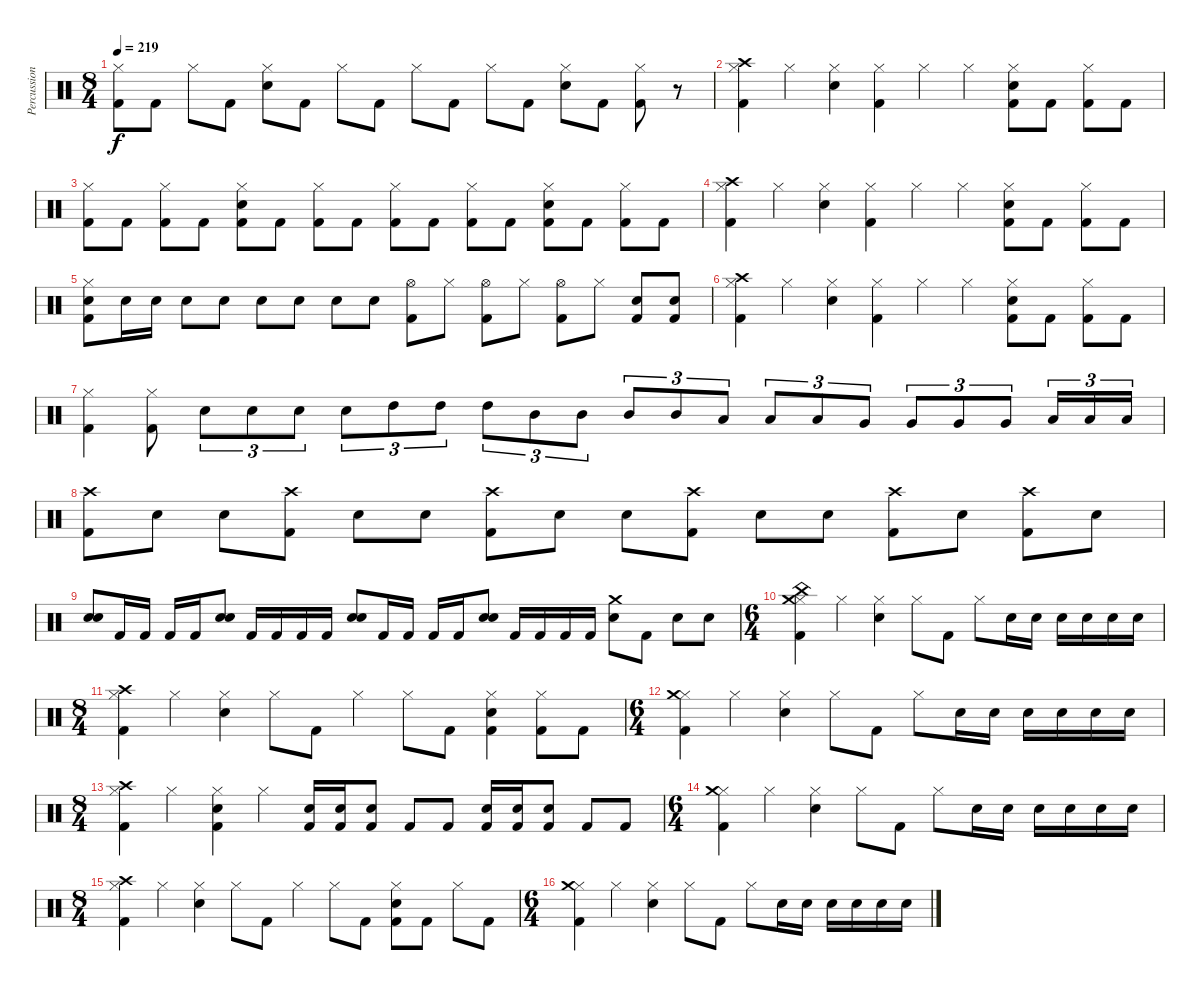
\track ("Percussion" "Percussion") {instrument percussion}
\staff {score}
\articulation defaults
\ts (8 4)
\tempo 219
\clef neutral
\ks c
("Hi-Hat (closed)" "Kick (hit) 2").8{dy f} "Kick (hit) 2".8 "Hi-Hat (closed)".8 "Kick (hit) 2".8 ("Hi-Hat (closed)" "Electric Snare (hit)").8 "Kick (hit) 2".8 "Hi-Hat (closed)".8 "Kick (hit) 2".8 "Hi-Hat (closed)".8 "Kick (hit) 2".8 "Hi-Hat (closed)".8 "Kick (hit) 2".8 ("Hi-Hat (closed)" "Electric Snare (hit)").8 "Kick (hit) 2".8 ("Hi-Hat (closed)" "Kick (hit) 2").8 r.8 |
("Crash high (hit)" "Hi-Hat (closed)" "Kick (hit) 2").4 "Hi-Hat (closed)".4 ("Hi-Hat (closed)" "Electric Snare (hit)").4 ("Hi-Hat (closed)" "Kick (hit) 2").4 "Hi-Hat (closed)".4 "Hi-Hat (closed)".4 ("Hi-Hat (closed)" "Electric Snare (hit)" "Kick (hit) 2").8 "Kick (hit) 2".8 ("Hi-Hat (closed)" "Kick (hit) 2").8 "Kick (hit) 2".8 |
("Hi-Hat (closed)" "Kick (hit) 2").8 "Kick (hit) 2".8 ("Hi-Hat (closed)" "Kick (hit) 2").8 "Kick (hit) 2".8 ("Hi-Hat (closed)" "Electric Snare (hit)" "Kick (hit) 2").8 "Kick (hit) 2".8 ("Hi-Hat (closed)" "Kick (hit) 2").8 "Kick (hit) 2".8 ("Hi-Hat (closed)" "Kick (hit) 2").8 "Kick (hit) 2".8 ("Hi-Hat (closed)" "Kick (hit) 2").8 "Kick (hit) 2".8 ("Hi-Hat (closed)" "Electric Snare (hit)" "Kick (hit) 2").8 "Kick (hit) 2".8 ("Hi-Hat (closed)" "Kick (hit) 2").8 "Kick (hit) 2".8 |
("Crash high (hit)" "Hi-Hat (closed)" "Kick (hit) 2").4 "Hi-Hat (closed)".4 ("Hi-Hat (closed)" "Electric Snare (hit)").4 ("Hi-Hat (closed)" "Kick (hit) 2").4 "Hi-Hat (closed)".4 "Hi-Hat (closed)".4 ("Hi-Hat (closed)" "Electric Snare (hit)" "Kick (hit) 2").8 "Kick (hit) 2".8 ("Hi-Hat (closed)" "Kick (hit) 2").8 "Kick (hit) 2".8 |
("Hi-Hat (closed)" "Electric Snare (hit)" "Kick (hit) 2").8 "Electric Snare (hit)".16 "Electric Snare (hit)".16 "Electric Snare (hit)".8 "Electric Snare (hit)".8 "Electric Snare (hit)".8 "Electric Snare (hit)".8 "Electric Snare (hit)".8 "Electric Snare (hit)".8 ("Hi-Hat (open)" "Kick (hit) 2").8 "Hi-Hat (closed)".8 ("Hi-Hat (open)" "Kick (hit) 2").8 "Hi-Hat (closed)".8 ("Hi-Hat (open)" "Kick (hit) 2").8 "Hi-Hat (closed)".8 ("Electric Snare (hit)" "Kick (hit) 2").8 ("Electric Snare (hit)" "Kick (hit) 2").8 |
("Crash high (hit)" "Hi-Hat (closed)" "Kick (hit) 2").4 "Hi-Hat (closed)".4 ("Hi-Hat (closed)" "Electric Snare (hit)").4 ("Hi-Hat (closed)" "Kick (hit) 2").4 "Hi-Hat (closed)".4 "Hi-Hat (closed)".4 ("Hi-Hat (closed)" "Electric Snare (hit)" "Kick (hit) 2").8 "Kick (hit) 2".8 ("Hi-Hat (closed)" "Kick (hit) 2").8 "Kick (hit) 2".8 |
("Hi-Hat (closed)" "Kick (hit) 2").4 ("Hi-Hat (closed)" "Kick (hit) 2").8 "Electric Snare (hit)".8{tu (3 2)} "Electric Snare (hit)".8{tu (3 2)} "Electric Snare (hit)".8{tu (3 2)} "Electric Snare (hit)".8{tu (3 2)} "High Tom (hit)".8{tu (3 2)} "High Tom (hit)".8{tu (3 2)} "High Tom (hit)".8{tu (3 2)} "Mid Tom (hit)".8{tu (3 2)} "Mid Tom (hit)".8{tu (3 2)} "Mid Tom (hit)".8{tu (3 2)} "Mid Tom (hit)".8{tu (3 2)} "Low Tom (hit)".8{tu (3 2)} "Low Tom (hit)".8{tu (3 2)} "Low Tom (hit)".8{tu (3 2)} "Very Low Tom (hit)".8{tu (3 2)} "Very Low Tom (hit)".8{tu (3 2)} "Very Low Tom (hit)".8{tu (3 2)} "Very Low Tom (hit)".8{tu (3 2)} "Low Floor Tom (hit)".16{tu (3 2)} "Low Floor Tom (hit)".16{tu (3 2)} "Low Floor Tom (hit)".16{tu (3 2)} |
("Crash high (hit)" "Kick (hit) 2").8 "Electric Snare (hit)".8 "Electric Snare (hit)".8 ("Crash high (hit)" "Kick (hit) 2").8 "Electric Snare (hit)".8 "Electric Snare (hit)".8 ("Crash high (hit)" "Kick (hit) 2").8 "Electric Snare (hit)".8 "Electric Snare (hit)".8 ("Crash high (hit)" "Kick (hit) 2").8 "Electric Snare (hit)".8 "Electric Snare (hit)".8 ("Crash high (hit)" "Kick (hit) 2").8 "Electric Snare (hit)".8 ("Crash high (hit)" "Kick (hit) 2").8 "Electric Snare (hit)".8 |
("Electric Snare (hit)" "Snare (hit) 2").8 "Kick (hit) 2".16 "Kick (hit) 2".16 "Kick (hit) 2".16 "Kick (hit) 2".16 ("Electric Snare (hit)" "Snare (hit) 2").8 "Kick (hit) 2".16 "Kick (hit) 2".16 "Kick (hit) 2".16 "Kick (hit) 2".16 ("Electric Snare (hit)" "Snare (hit) 2").8 "Kick (hit) 2".16 "Kick (hit) 2".16 "Kick (hit) 2".16 "Kick (hit) 2".16 ("Electric Snare (hit)" "Snare (hit) 2").8 "Kick (hit) 2".16 "Kick (hit) 2".16 "Kick (hit) 2".16 "Kick (hit) 2".16 ("Crash medium (hit)" "Electric Snare (hit)").8 "Kick (hit) 2".8 "Electric Snare (hit)".8 "Electric Snare (hit)".8 |
\ts (6 4)
("China (hit)" "Hi-Hat (closed)" "Crash medium (hit)" "Kick (hit) 2").4 "Hi-Hat (closed)".4 ("Hi-Hat (closed)" "Electric Snare (hit)").4 "Hi-Hat (closed)".8 "Kick (hit) 2".8 "Hi-Hat (closed)".8 "Electric Snare (hit)".16 "Electric Snare (hit)".16 "Electric Snare (hit)".16 "Electric Snare (hit)".16 "Electric Snare (hit)".16 "Electric Snare (hit)".16 |
\ts (8 4)
("Hi-Hat (closed)" "Crash high (hit)" "Kick (hit) 2").4 "Hi-Hat (closed)".4 ("Hi-Hat (closed)" "Electric Snare (hit)").4 "Hi-Hat (closed)".8 "Kick (hit) 2".8 "Hi-Hat (closed)".4 "Hi-Hat (closed)".8 "Kick (hit) 2".8 ("Hi-Hat (closed)" "Kick (hit) 2" "Electric Snare (hit)").4 ("Hi-Hat (closed)" "Kick (hit) 2").8 "Kick (hit) 2".8 |
\ts (6 4)
("Hi-Hat (closed)" "Crash medium (hit)" "Kick (hit) 2").4 "Hi-Hat (closed)".4 ("Hi-Hat (closed)" "Electric Snare (hit)").4 "Hi-Hat (closed)".8 "Kick (hit) 2".8 "Hi-Hat (closed)".8 "Electric Snare (hit)".16 "Electric Snare (hit)".16 "Electric Snare (hit)".16 "Electric Snare (hit)".16 "Electric Snare (hit)".16 "Electric Snare (hit)".16 |
\ts (8 4)
("Hi-Hat (closed)" "Crash high (hit)" "Kick (hit) 2").4 "Hi-Hat (closed)".4 ("Hi-Hat (closed)" "Kick (hit) 2" "Electric Snare (hit)").4 "Hi-Hat (closed)".4 ("Electric Snare (hit)" "Kick (hit) 2").16 ("Electric Snare (hit)" "Kick (hit) 2").16 ("Electric Snare (hit)" "Kick (hit) 2").8 "Kick (hit) 2".8 "Kick (hit) 2".8 ("Electric Snare (hit)" "Kick (hit) 2").16 ("Electric Snare (hit)" "Kick (hit) 2").16 ("Electric Snare (hit)" "Kick (hit) 2").8 "Kick (hit) 2".8 "Kick (hit) 2".8 |
\ts (6 4)
("Hi-Hat (closed)" "Crash medium (hit)" "Kick (hit) 2").4 "Hi-Hat (closed)".4 ("Hi-Hat (closed)" "Electric Snare (hit)").4 "Hi-Hat (closed)".8 "Kick (hit) 2".8 "Hi-Hat (closed)".8 "Electric Snare (hit)".16 "Electric Snare (hit)".16 "Electric Snare (hit)".16 "Electric Snare (hit)".16 "Electric Snare (hit)".16 "Electric Snare (hit)".16 |
\ts (8 4)
("Hi-Hat (closed)" "Crash high (hit)" "Kick (hit) 2").4 "Hi-Hat (closed)".4 ("Hi-Hat (closed)" "Electric Snare (hit)").4 "Hi-Hat (closed)".8 "Kick (hit) 2".8 "Hi-Hat (closed)".4 "Hi-Hat (closed)".8 "Kick (hit) 2".8 ("Hi-Hat (closed)" "Kick (hit) 2" "Electric Snare (hit)").8 "Kick (hit) 2".8 "Hi-Hat (closed)".8 "Kick (hit) 2".8 |
\ts (6 4)
("Hi-Hat (closed)" "Crash medium (hit)" "Kick (hit) 2").4 "Hi-Hat (closed)".4 ("Hi-Hat (closed)" "Electric Snare (hit)").4 "Hi-Hat (closed)".8 "Kick (hit) 2".8 "Hi-Hat (closed)".8 "Electric Snare (hit)".16 "Electric Snare (hit)".16 "Electric Snare (hit)".16 "Electric Snare (hit)".16 "Electric Snare (hit)".16 "Electric Snare (hit)".16
